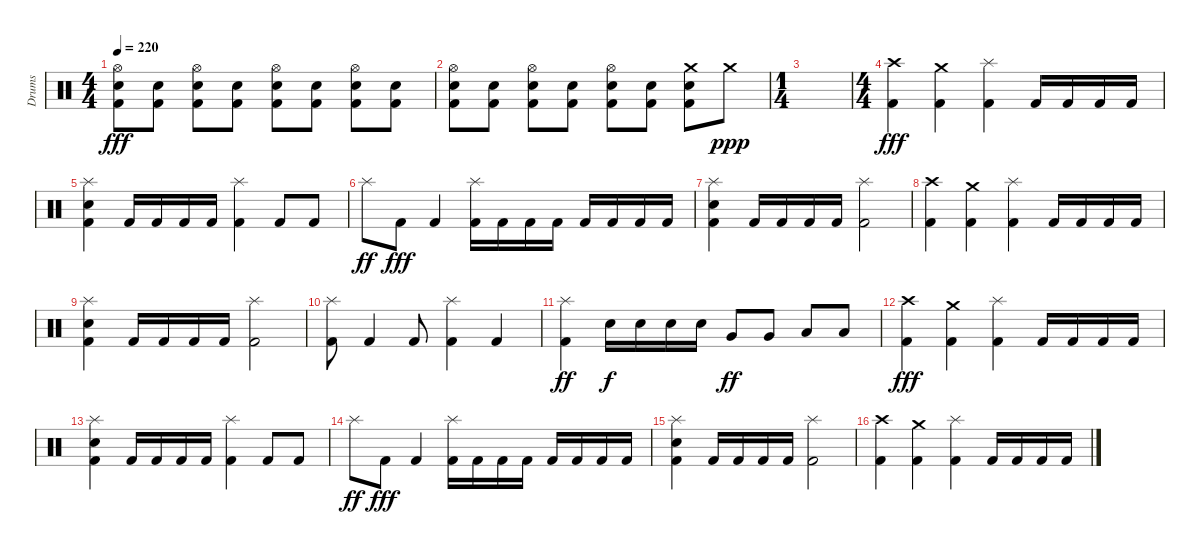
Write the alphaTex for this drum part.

\track ("Drums" "Drums") {instrument percussion}
\staff {score}
\articulation defaults
\ts (4 4)
\tempo 220
\clef neutral
\ks c
("Hi-Hat (open)" "Snare (hit) 2" "Kick (hit) 2").8{dy fff} ("Snare (hit) 2" "Kick (hit) 2").8 ("Hi-Hat (open)" "Snare (hit) 2" "Kick (hit) 2").8 ("Snare (hit) 2" "Kick (hit) 2").8 ("Hi-Hat (open)" "Snare (hit) 2" "Kick (hit) 2").8 ("Snare (hit) 2" "Kick (hit) 2").8 ("Hi-Hat (open)" "Snare (hit) 2" "Kick (hit) 2").8 ("Snare (hit) 2" "Kick (hit) 2").8 |
("Hi-Hat (open)" "Snare (hit) 2" "Kick (hit) 2").8 ("Snare (hit) 2" "Kick (hit) 2").8 ("Hi-Hat (open)" "Snare (hit) 2" "Kick (hit) 2").8 ("Snare (hit) 2" "Kick (hit) 2").8 ("Hi-Hat (open)" "Snare (hit) 2" "Kick (hit) 2").8 ("Snare (hit) 2" "Kick (hit) 2").8 ("Crash medium (hit)" "Snare (hit) 2" "Kick (hit) 2").8 "Crash medium (hit)".8{dy ppp} |
\ts (1 4)
|
\ts (4 4)
("Crash high (hit)" "Kick (hit) 2").4{dy fff} ("Crash medium (hit)" "Kick (hit) 2").4 ("Splash (hit)" "Kick (hit) 2").4 "Kick (hit) 2".16 "Kick (hit) 2".16 "Kick (hit) 2".16 "Kick (hit) 2".16 |
("Splash (hit)" "Snare (hit) 2" "Kick (hit) 2").4 "Kick (hit) 2".16 "Kick (hit) 2".16 "Kick (hit) 2".16 "Kick (hit) 2".16 ("Splash (hit)" "Kick (hit) 2").4 "Kick (hit) 2".8 "Kick (hit) 2".8 |
"Splash (hit)".8{dy ff} "Kick (hit) 2".8{dy fff} "Kick (hit) 2".4 ("Splash (hit)" "Kick (hit) 2").16 "Kick (hit) 2".16 "Kick (hit) 2".16 "Kick (hit) 2".16 "Kick (hit) 2".16 "Kick (hit) 2".16 "Kick (hit) 2".16 "Kick (hit) 2".16 |
("Splash (hit)" "Snare (hit) 2" "Kick (hit) 2").4 "Kick (hit) 2".16 "Kick (hit) 2".16 "Kick (hit) 2".16 "Kick (hit) 2".16 ("Splash (hit)" "Kick (hit) 2").2 |
("Crash high (hit)" "Kick (hit) 2").4 ("Crash medium (hit)" "Kick (hit) 2").4 ("Splash (hit)" "Kick (hit) 2").4 "Kick (hit) 2".16 "Kick (hit) 2".16 "Kick (hit) 2".16 "Kick (hit) 2".16 |
("Splash (hit)" "Snare (hit) 2" "Kick (hit) 2").4 "Kick (hit) 2".16 "Kick (hit) 2".16 "Kick (hit) 2".16 "Kick (hit) 2".16 ("Splash (hit)" "Kick (hit) 2").2 |
("Splash (hit)" "Kick (hit) 2").8 "Kick (hit) 2".4 "Kick (hit) 2".8 ("Splash (hit)" "Kick (hit) 2").4 "Kick (hit) 2".4 |
("Splash (hit)" "Kick (hit) 2").4{dy ff} "Snare (hit) 2".16{dy f} "Snare (hit) 2".16 "Snare (hit) 2".16 "Snare (hit) 2".16 "Very Low Tom (hit)".8{dy ff} "Very Low Tom (hit)".8 "Low Floor Tom (hit)".8 "Low Floor Tom (hit)".8 |
("Crash high (hit)" "Kick (hit) 2").4{dy fff} ("Crash medium (hit)" "Kick (hit) 2").4 ("Splash (hit)" "Kick (hit) 2").4 "Kick (hit) 2".16 "Kick (hit) 2".16 "Kick (hit) 2".16 "Kick (hit) 2".16 |
("Splash (hit)" "Snare (hit) 2" "Kick (hit) 2").4 "Kick (hit) 2".16 "Kick (hit) 2".16 "Kick (hit) 2".16 "Kick (hit) 2".16 ("Splash (hit)" "Kick (hit) 2").4 "Kick (hit) 2".8 "Kick (hit) 2".8 |
"Splash (hit)".8{dy ff} "Kick (hit) 2".8{dy fff} "Kick (hit) 2".4 ("Splash (hit)" "Kick (hit) 2").16 "Kick (hit) 2".16 "Kick (hit) 2".16 "Kick (hit) 2".16 "Kick (hit) 2".16 "Kick (hit) 2".16 "Kick (hit) 2".16 "Kick (hit) 2".16 |
("Splash (hit)" "Snare (hit) 2" "Kick (hit) 2").4 "Kick (hit) 2".16 "Kick (hit) 2".16 "Kick (hit) 2".16 "Kick (hit) 2".16 ("Splash (hit)" "Kick (hit) 2").2 |
("Crash high (hit)" "Kick (hit) 2").4 ("Crash medium (hit)" "Kick (hit) 2").4 ("Splash (hit)" "Kick (hit) 2").4 "Kick (hit) 2".16 "Kick (hit) 2".16 "Kick (hit) 2".16 "Kick (hit) 2".16
